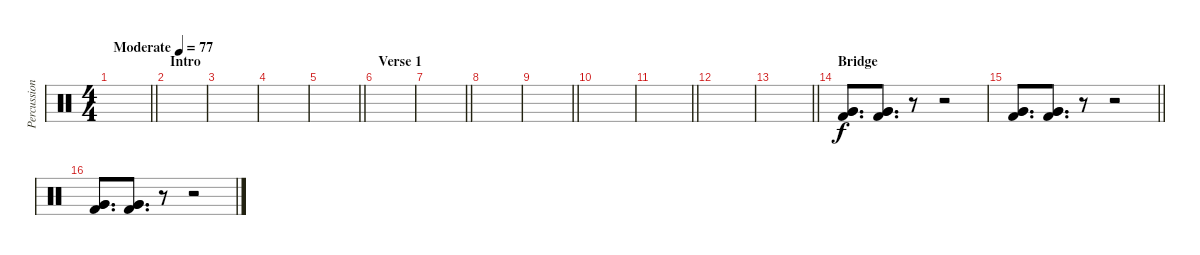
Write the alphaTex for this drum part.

\track ("Percussion" "Percussion") {instrument percussion}
\staff {score}
\articulation defaults
\ts (4 4)
\tempo (77 "Moderate")
\clef neutral
\barLineRight lightlight
\ks c
|
\section ("" "Intro")
|
|
|
\barLineRight lightlight
|
\section ("" "Verse 1")
|
\barLineRight lightlight
|
|
\barLineRight lightlight
|
|
\barLineRight lightlight
|
|
\barLineRight lightlight
|
\section ("" "Bridge")
("Very Low Tom (hit)" "Very Low Tom (hit)" "Kick (hit) 2").8{d} ("Very Low Tom (hit)" "Very Low Tom (hit)" "Kick (hit) 2").8{d} r.8 r.2 |
\barLineRight lightlight
("Very Low Tom (hit)" "Very Low Tom (hit)" "Kick (hit) 2").8{d} ("Very Low Tom (hit)" "Very Low Tom (hit)" "Kick (hit) 2").8{d} r.8 r.2 |
("Very Low Tom (hit)" "Very Low Tom (hit)" "Kick (hit) 2").8{d} ("Very Low Tom (hit)" "Very Low Tom (hit)" "Kick (hit) 2").8{d} r.8 r.2
